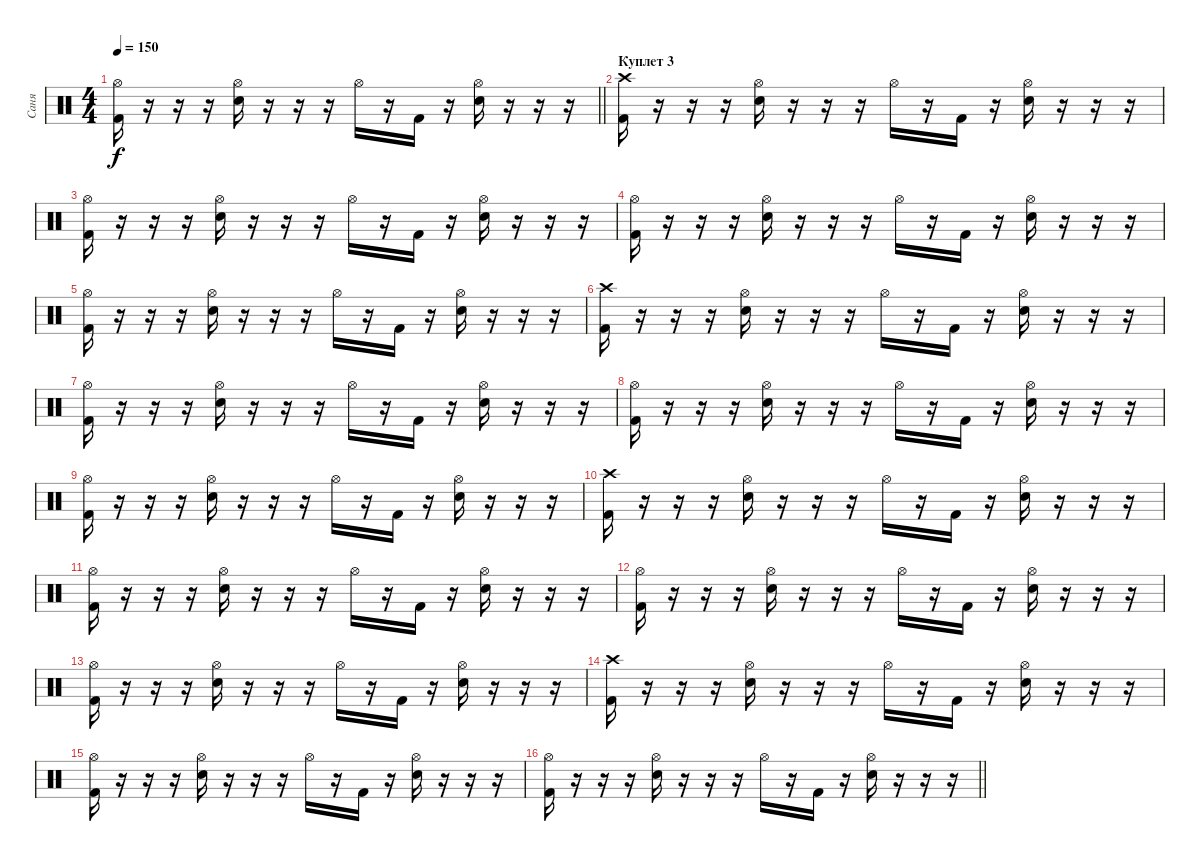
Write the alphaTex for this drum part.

\track ("Саня" "Саня") {instrument percussion}
\staff {score}
\articulation defaults
\ts (4 4)
\tempo 150
\clef neutral
\barLineRight lightlight
\ks c
("Kick (hit) 2" "Hi-Hat (open)").16{dy f} r.16 r.16 r.16 ("Snare (hit) 2" "Hi-Hat (open)").16 r.16 r.16 r.16 "Hi-Hat (open)".16 r.16 "Kick (hit) 2".16 r.16 ("Snare (hit) 2" "Hi-Hat (open)").16 r.16 r.16 r.16 |
\section ("" "Куплет 3")
("Kick (hit) 2" "Crash high (hit)").16 r.16 r.16 r.16 ("Snare (hit) 2" "Hi-Hat (open)").16 r.16 r.16 r.16 "Hi-Hat (open)".16 r.16 "Kick (hit) 2".16 r.16 ("Snare (hit) 2" "Hi-Hat (open)").16 r.16 r.16 r.16 |
("Kick (hit) 2" "Hi-Hat (open)").16 r.16 r.16 r.16 ("Snare (hit) 2" "Hi-Hat (open)").16 r.16 r.16 r.16 "Hi-Hat (open)".16 r.16 "Kick (hit) 2".16 r.16 ("Snare (hit) 2" "Hi-Hat (open)").16 r.16 r.16 r.16 |
("Kick (hit) 2" "Hi-Hat (open)").16 r.16 r.16 r.16 ("Snare (hit) 2" "Hi-Hat (open)").16 r.16 r.16 r.16 "Hi-Hat (open)".16 r.16 "Kick (hit) 2".16 r.16 ("Snare (hit) 2" "Hi-Hat (open)").16 r.16 r.16 r.16 |
("Kick (hit) 2" "Hi-Hat (open)").16 r.16 r.16 r.16 ("Snare (hit) 2" "Hi-Hat (open)").16 r.16 r.16 r.16 "Hi-Hat (open)".16 r.16 "Kick (hit) 2".16 r.16 ("Snare (hit) 2" "Hi-Hat (open)").16 r.16 r.16 r.16 |
("Kick (hit) 2" "Crash high (hit)").16 r.16 r.16 r.16 ("Snare (hit) 2" "Hi-Hat (open)").16 r.16 r.16 r.16 "Hi-Hat (open)".16 r.16 "Kick (hit) 2".16 r.16 ("Snare (hit) 2" "Hi-Hat (open)").16 r.16 r.16 r.16 |
("Kick (hit) 2" "Hi-Hat (open)").16 r.16 r.16 r.16 ("Snare (hit) 2" "Hi-Hat (open)").16 r.16 r.16 r.16 "Hi-Hat (open)".16 r.16 "Kick (hit) 2".16 r.16 ("Snare (hit) 2" "Hi-Hat (open)").16 r.16 r.16 r.16 |
("Kick (hit) 2" "Hi-Hat (open)").16 r.16 r.16 r.16 ("Snare (hit) 2" "Hi-Hat (open)").16 r.16 r.16 r.16 "Hi-Hat (open)".16 r.16 "Kick (hit) 2".16 r.16 ("Snare (hit) 2" "Hi-Hat (open)").16 r.16 r.16 r.16 |
("Kick (hit) 2" "Hi-Hat (open)").16 r.16 r.16 r.16 ("Snare (hit) 2" "Hi-Hat (open)").16 r.16 r.16 r.16 "Hi-Hat (open)".16 r.16 "Kick (hit) 2".16 r.16 ("Snare (hit) 2" "Hi-Hat (open)").16 r.16 r.16 r.16 |
("Kick (hit) 2" "Crash high (hit)").16 r.16 r.16 r.16 ("Snare (hit) 2" "Hi-Hat (open)").16 r.16 r.16 r.16 "Hi-Hat (open)".16 r.16 "Kick (hit) 2".16 r.16 ("Snare (hit) 2" "Hi-Hat (open)").16 r.16 r.16 r.16 |
("Kick (hit) 2" "Hi-Hat (open)").16 r.16 r.16 r.16 ("Snare (hit) 2" "Hi-Hat (open)").16 r.16 r.16 r.16 "Hi-Hat (open)".16 r.16 "Kick (hit) 2".16 r.16 ("Snare (hit) 2" "Hi-Hat (open)").16 r.16 r.16 r.16 |
("Kick (hit) 2" "Hi-Hat (open)").16 r.16 r.16 r.16 ("Snare (hit) 2" "Hi-Hat (open)").16 r.16 r.16 r.16 "Hi-Hat (open)".16 r.16 "Kick (hit) 2".16 r.16 ("Snare (hit) 2" "Hi-Hat (open)").16 r.16 r.16 r.16 |
("Kick (hit) 2" "Hi-Hat (open)").16 r.16 r.16 r.16 ("Snare (hit) 2" "Hi-Hat (open)").16 r.16 r.16 r.16 "Hi-Hat (open)".16 r.16 "Kick (hit) 2".16 r.16 ("Snare (hit) 2" "Hi-Hat (open)").16 r.16 r.16 r.16 |
("Kick (hit) 2" "Crash high (hit)").16 r.16 r.16 r.16 ("Snare (hit) 2" "Hi-Hat (open)").16 r.16 r.16 r.16 "Hi-Hat (open)".16 r.16 "Kick (hit) 2".16 r.16 ("Snare (hit) 2" "Hi-Hat (open)").16 r.16 r.16 r.16 |
("Kick (hit) 2" "Hi-Hat (open)").16 r.16 r.16 r.16 ("Snare (hit) 2" "Hi-Hat (open)").16 r.16 r.16 r.16 "Hi-Hat (open)".16 r.16 "Kick (hit) 2".16 r.16 ("Snare (hit) 2" "Hi-Hat (open)").16 r.16 r.16 r.16 |
\barLineRight lightlight
("Kick (hit) 2" "Hi-Hat (open)").16 r.16 r.16 r.16 ("Snare (hit) 2" "Hi-Hat (open)").16 r.16 r.16 r.16 "Hi-Hat (open)".16 r.16 "Kick (hit) 2".16 r.16 ("Snare (hit) 2" "Hi-Hat (open)").16 r.16 r.16 r.16
